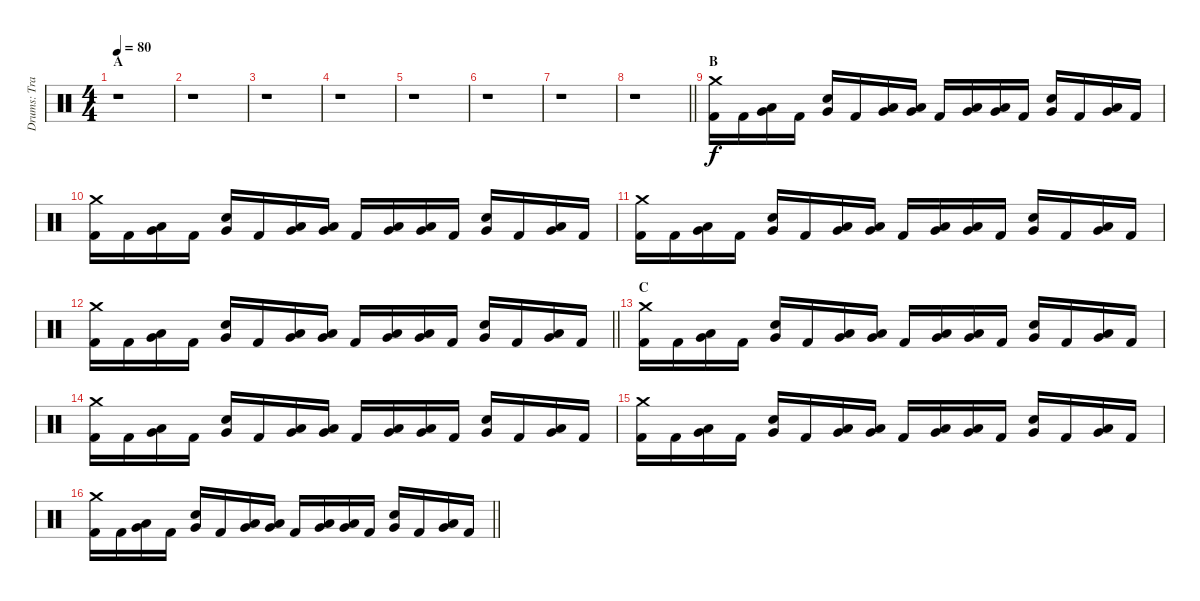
\track ("Drums: Travis Clarke" "Drums: Tra") {instrument percussion}
\staff {score}
\articulation defaults
\ts (4 4)
\section ("" "A")
\tempo 80
\clef neutral
\ks c
r.1{dy f} |
r.1 |
r.1 |
r.1 |
r.1 |
r.1 |
r.1 |
\barLineRight lightlight
r.1 |
\section ("" "B")
("Kick (hit) 2" "Crash medium (hit)").16 "Kick (hit) 2".16 ("Very Low Tom (hit)" "Low Tom (hit)").16 "Kick (hit) 2".16 ("Snare (hit) 2" "Very Low Tom (hit)").16 "Kick (hit) 2".16 ("Very Low Tom (hit)" "Low Tom (hit)").16 ("Very Low Tom (hit)" "Low Tom (hit)").16 "Kick (hit) 2".16 ("Very Low Tom (hit)" "Low Tom (hit)").16 ("Very Low Tom (hit)" "Low Tom (hit)").16 "Kick (hit) 2".16 ("Snare (hit) 2" "Very Low Tom (hit)").16 "Kick (hit) 2".16 ("Very Low Tom (hit)" "Low Tom (hit)").16 "Kick (hit) 2".16 |
("Kick (hit) 2" "Crash medium (hit)").16 "Kick (hit) 2".16 ("Very Low Tom (hit)" "Low Tom (hit)").16 "Kick (hit) 2".16 ("Snare (hit) 2" "Very Low Tom (hit)").16 "Kick (hit) 2".16 ("Very Low Tom (hit)" "Low Tom (hit)").16 ("Very Low Tom (hit)" "Low Tom (hit)").16 "Kick (hit) 2".16 ("Very Low Tom (hit)" "Low Tom (hit)").16 ("Very Low Tom (hit)" "Low Tom (hit)").16 "Kick (hit) 2".16 ("Snare (hit) 2" "Very Low Tom (hit)").16 "Kick (hit) 2".16 ("Very Low Tom (hit)" "Low Tom (hit)").16 "Kick (hit) 2".16 |
("Kick (hit) 2" "Crash medium (hit)").16 "Kick (hit) 2".16 ("Very Low Tom (hit)" "Low Tom (hit)").16 "Kick (hit) 2".16 ("Snare (hit) 2" "Very Low Tom (hit)").16 "Kick (hit) 2".16 ("Very Low Tom (hit)" "Low Tom (hit)").16 ("Very Low Tom (hit)" "Low Tom (hit)").16 "Kick (hit) 2".16 ("Very Low Tom (hit)" "Low Tom (hit)").16 ("Very Low Tom (hit)" "Low Tom (hit)").16 "Kick (hit) 2".16 ("Snare (hit) 2" "Very Low Tom (hit)").16 "Kick (hit) 2".16 ("Very Low Tom (hit)" "Low Tom (hit)").16 "Kick (hit) 2".16 |
\barLineRight lightlight
("Kick (hit) 2" "Crash medium (hit)").16 "Kick (hit) 2".16 ("Very Low Tom (hit)" "Low Tom (hit)").16 "Kick (hit) 2".16 ("Snare (hit) 2" "Very Low Tom (hit)").16 "Kick (hit) 2".16 ("Very Low Tom (hit)" "Low Tom (hit)").16 ("Very Low Tom (hit)" "Low Tom (hit)").16 "Kick (hit) 2".16 ("Very Low Tom (hit)" "Low Tom (hit)").16 ("Very Low Tom (hit)" "Low Tom (hit)").16 "Kick (hit) 2".16 ("Snare (hit) 2" "Very Low Tom (hit)").16 "Kick (hit) 2".16 ("Very Low Tom (hit)" "Low Tom (hit)").16 "Kick (hit) 2".16 |
\section ("" "C")
("Kick (hit) 2" "Crash medium (hit)").16 "Kick (hit) 2".16 ("Very Low Tom (hit)" "Low Tom (hit)").16 "Kick (hit) 2".16 ("Snare (hit) 2" "Very Low Tom (hit)").16 "Kick (hit) 2".16 ("Very Low Tom (hit)" "Low Tom (hit)").16 ("Very Low Tom (hit)" "Low Tom (hit)").16 "Kick (hit) 2".16 ("Very Low Tom (hit)" "Low Tom (hit)").16 ("Very Low Tom (hit)" "Low Tom (hit)").16 "Kick (hit) 2".16 ("Snare (hit) 2" "Very Low Tom (hit)").16 "Kick (hit) 2".16 ("Very Low Tom (hit)" "Low Tom (hit)").16 "Kick (hit) 2".16 |
("Kick (hit) 2" "Crash medium (hit)").16 "Kick (hit) 2".16 ("Very Low Tom (hit)" "Low Tom (hit)").16 "Kick (hit) 2".16 ("Snare (hit) 2" "Very Low Tom (hit)").16 "Kick (hit) 2".16 ("Very Low Tom (hit)" "Low Tom (hit)").16 ("Very Low Tom (hit)" "Low Tom (hit)").16 "Kick (hit) 2".16 ("Very Low Tom (hit)" "Low Tom (hit)").16 ("Very Low Tom (hit)" "Low Tom (hit)").16 "Kick (hit) 2".16 ("Snare (hit) 2" "Very Low Tom (hit)").16 "Kick (hit) 2".16 ("Very Low Tom (hit)" "Low Tom (hit)").16 "Kick (hit) 2".16 |
("Kick (hit) 2" "Crash medium (hit)").16 "Kick (hit) 2".16 ("Very Low Tom (hit)" "Low Tom (hit)").16 "Kick (hit) 2".16 ("Snare (hit) 2" "Very Low Tom (hit)").16 "Kick (hit) 2".16 ("Very Low Tom (hit)" "Low Tom (hit)").16 ("Very Low Tom (hit)" "Low Tom (hit)").16 "Kick (hit) 2".16 ("Very Low Tom (hit)" "Low Tom (hit)").16 ("Very Low Tom (hit)" "Low Tom (hit)").16 "Kick (hit) 2".16 ("Snare (hit) 2" "Very Low Tom (hit)").16 "Kick (hit) 2".16 ("Very Low Tom (hit)" "Low Tom (hit)").16 "Kick (hit) 2".16 |
\barLineRight lightlight
("Kick (hit) 2" "Crash medium (hit)").16 "Kick (hit) 2".16 ("Very Low Tom (hit)" "Low Tom (hit)").16 "Kick (hit) 2".16 ("Snare (hit) 2" "Very Low Tom (hit)").16 "Kick (hit) 2".16 ("Very Low Tom (hit)" "Low Tom (hit)").16 ("Very Low Tom (hit)" "Low Tom (hit)").16 "Kick (hit) 2".16 ("Very Low Tom (hit)" "Low Tom (hit)").16 ("Very Low Tom (hit)" "Low Tom (hit)").16 "Kick (hit) 2".16 ("Snare (hit) 2" "Very Low Tom (hit)").16 "Kick (hit) 2".16 ("Very Low Tom (hit)" "Low Tom (hit)").16 "Kick (hit) 2".16
